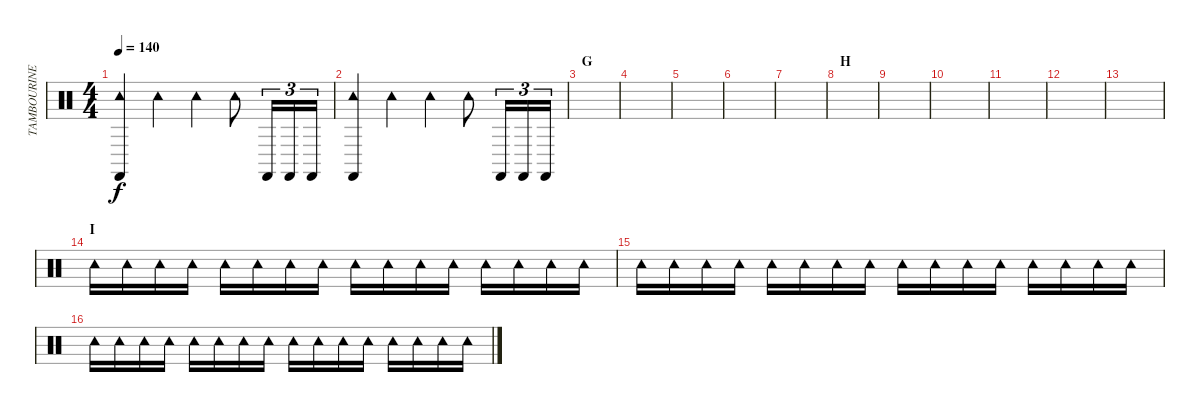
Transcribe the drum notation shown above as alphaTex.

\track ("TAMBOURINE" "TAMBOURINE") {instrument percussion}
\staff {score}
\articulation defaults
\ts (4 4)
\tempo 140
\clef neutral
\ks aminor
("Tambourine (hit)" "Castanets (hit)").4{dy f} "Tambourine (hit)".4 "Tambourine (hit)".4 "Tambourine (hit)".8 "Castanets (hit)".16{tu (3 2)} "Castanets (hit)".16{tu (3 2)} "Castanets (hit)".16{tu (3 2)} |
("Tambourine (hit)" "Castanets (hit)").4 "Tambourine (hit)".4 "Tambourine (hit)".4 "Tambourine (hit)".8 "Castanets (hit)".16{tu (3 2)} "Castanets (hit)".16{tu (3 2)} "Castanets (hit)".16{tu (3 2)} |
\section ("" "G")
|
|
|
|
|
\section ("" "H")
|
|
|
|
|
|
\section ("" "I")
\ks c "Tambourine (hit)".16 "Tambourine (hit)".16 "Tambourine (hit)".16 "Tambourine (hit)".16 "Tambourine (hit)".16 "Tambourine (hit)".16 "Tambourine (hit)".16 "Tambourine (hit)".16 "Tambourine (hit)".16 "Tambourine (hit)".16 "Tambourine (hit)".16 "Tambourine (hit)".16 "Tambourine (hit)".16 "Tambourine (hit)".16 "Tambourine (hit)".16 "Tambourine (hit)".16
|
"Tambourine (hit)".16 "Tambourine (hit)".16 "Tambourine (hit)".16 "Tambourine (hit)".16 "Tambourine (hit)".16 "Tambourine (hit)".16 "Tambourine (hit)".16 "Tambourine (hit)".16 "Tambourine (hit)".16 "Tambourine (hit)".16 "Tambourine (hit)".16 "Tambourine (hit)".16 "Tambourine (hit)".16 "Tambourine (hit)".16 "Tambourine (hit)".16 "Tambourine (hit)".16 |
"Tambourine (hit)".16 "Tambourine (hit)".16 "Tambourine (hit)".16 "Tambourine (hit)".16 "Tambourine (hit)".16 "Tambourine (hit)".16 "Tambourine (hit)".16 "Tambourine (hit)".16 "Tambourine (hit)".16 "Tambourine (hit)".16 "Tambourine (hit)".16 "Tambourine (hit)".16 "Tambourine (hit)".16 "Tambourine (hit)".16 "Tambourine (hit)".16 "Tambourine (hit)".16
